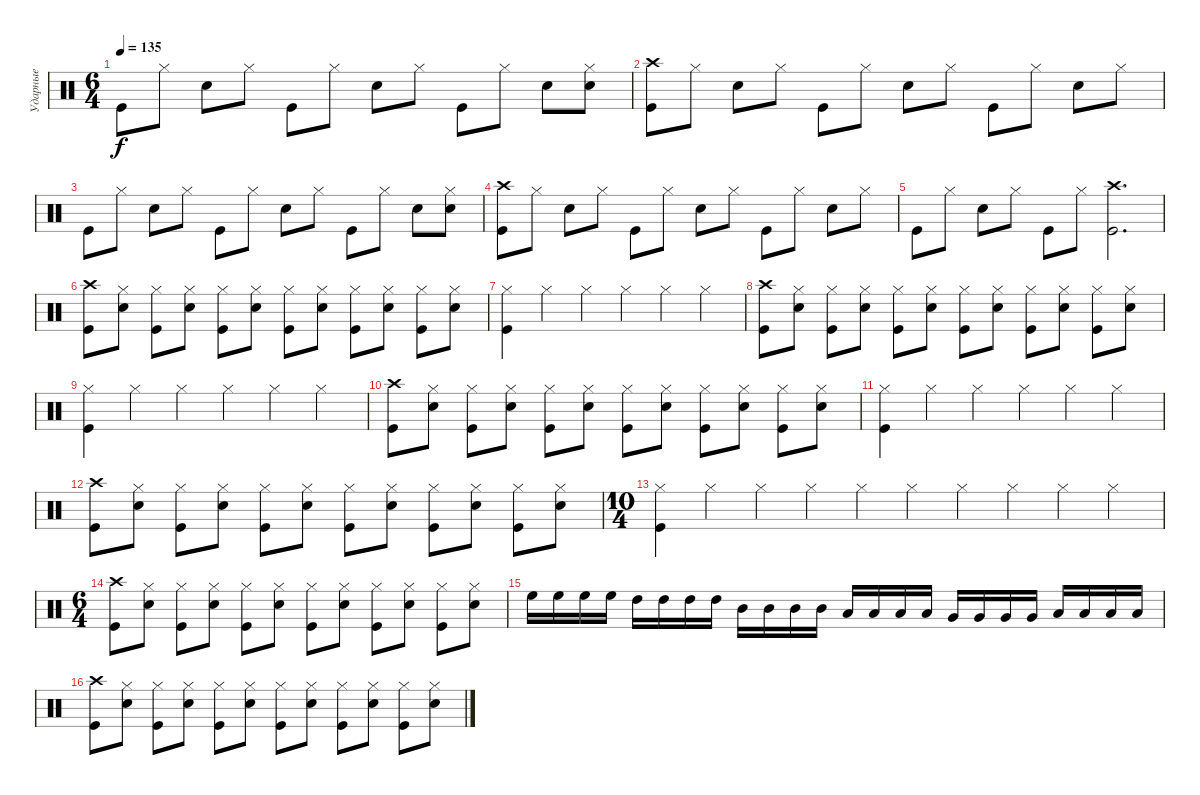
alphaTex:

\track ("Ударные" "Ударные") {instrument percussion}
\staff {score}
\articulation defaults
\ts (6 4)
\tempo 135
\clef neutral
\ks c "Kick (hit)".8{dy f} "Hi-Hat (closed)".8 "Electric Snare (hit)".8 "Hi-Hat (closed)".8 "Kick (hit)".8 "Hi-Hat (closed)".8 "Electric Snare (hit)".8 "Hi-Hat (closed)".8 "Kick (hit)".8 "Hi-Hat (closed)".8 "Electric Snare (hit)".8
("Hi-Hat (closed)" "Electric Snare (hit)").8 |
("Crash high (hit)" "Kick (hit)").8 "Hi-Hat (closed)".8 "Electric Snare (hit)".8 "Hi-Hat (closed)".8 "Kick (hit)".8 "Hi-Hat (closed)".8 "Electric Snare (hit)".8 "Hi-Hat (closed)".8 "Kick (hit)".8 "Hi-Hat (closed)".8 "Electric Snare (hit)".8 "Hi-Hat (closed)".8 |
"Kick (hit)".8 "Hi-Hat (closed)".8 "Electric Snare (hit)".8 "Hi-Hat (closed)".8 "Kick (hit)".8 "Hi-Hat (closed)".8 "Electric Snare (hit)".8 "Hi-Hat (closed)".8 "Kick (hit)".8 "Hi-Hat (closed)".8 "Electric Snare (hit)".8 ("Hi-Hat (closed)" "Electric Snare (hit)").8 |
("Crash high (hit)" "Kick (hit)").8 "Hi-Hat (closed)".8 "Electric Snare (hit)".8 "Hi-Hat (closed)".8 "Kick (hit)".8 "Hi-Hat (closed)".8 "Electric Snare (hit)".8 "Hi-Hat (closed)".8 "Kick (hit)".8 "Hi-Hat (closed)".8 "Electric Snare (hit)".8 "Hi-Hat (closed)".8 |
"Kick (hit)".8 "Hi-Hat (closed)".8 "Electric Snare (hit)".8 "Hi-Hat (closed)".8 "Kick (hit)".8 "Hi-Hat (closed)".8 ("Crash high (hit)" "Kick (hit)").2{d} |
("Crash high (hit)" "Kick (hit)").8 ("Hi-Hat (closed)" "Electric Snare (hit)").8 ("Hi-Hat (closed)" "Kick (hit)").8 ("Hi-Hat (closed)" "Electric Snare (hit)").8 ("Hi-Hat (closed)" "Kick (hit)").8 ("Hi-Hat (closed)" "Electric Snare (hit)").8 ("Hi-Hat (closed)" "Kick (hit)").8 ("Hi-Hat (closed)" "Electric Snare (hit)").8 ("Hi-Hat (closed)" "Kick (hit)").8 ("Hi-Hat (closed)" "Electric Snare (hit)").8 ("Hi-Hat (closed)" "Kick (hit)").8 ("Hi-Hat (closed)" "Electric Snare (hit)").8 |
("Hi-Hat (closed)" "Kick (hit)").4 "Hi-Hat (closed)".4 "Hi-Hat (closed)".4 "Hi-Hat (closed)".4 "Hi-Hat (closed)".4 "Hi-Hat (closed)".4 |
("Crash high (hit)" "Kick (hit)").8 ("Hi-Hat (closed)" "Electric Snare (hit)").8 ("Hi-Hat (closed)" "Kick (hit)").8 ("Hi-Hat (closed)" "Electric Snare (hit)").8 ("Hi-Hat (closed)" "Kick (hit)").8 ("Hi-Hat (closed)" "Electric Snare (hit)").8 ("Hi-Hat (closed)" "Kick (hit)").8 ("Hi-Hat (closed)" "Electric Snare (hit)").8 ("Hi-Hat (closed)" "Kick (hit)").8 ("Hi-Hat (closed)" "Electric Snare (hit)").8 ("Hi-Hat (closed)" "Kick (hit)").8 ("Hi-Hat (closed)" "Electric Snare (hit)").8 |
("Hi-Hat (closed)" "Kick (hit)").4 "Hi-Hat (closed)".4 "Hi-Hat (closed)".4 "Hi-Hat (closed)".4 "Hi-Hat (closed)".4 "Hi-Hat (closed)".4 |
("Crash high (hit)" "Kick (hit)").8 ("Hi-Hat (closed)" "Electric Snare (hit)").8 ("Hi-Hat (closed)" "Kick (hit)").8 ("Hi-Hat (closed)" "Electric Snare (hit)").8 ("Hi-Hat (closed)" "Kick (hit)").8 ("Hi-Hat (closed)" "Electric Snare (hit)").8 ("Hi-Hat (closed)" "Kick (hit)").8 ("Hi-Hat (closed)" "Electric Snare (hit)").8 ("Hi-Hat (closed)" "Kick (hit)").8 ("Hi-Hat (closed)" "Electric Snare (hit)").8 ("Hi-Hat (closed)" "Kick (hit)").8 ("Hi-Hat (closed)" "Electric Snare (hit)").8 |
("Hi-Hat (closed)" "Kick (hit)").4 "Hi-Hat (closed)".4 "Hi-Hat (closed)".4 "Hi-Hat (closed)".4 "Hi-Hat (closed)".4 "Hi-Hat (closed)".4 |
("Crash high (hit)" "Kick (hit)").8 ("Hi-Hat (closed)" "Electric Snare (hit)").8 ("Hi-Hat (closed)" "Kick (hit)").8 ("Hi-Hat (closed)" "Electric Snare (hit)").8 ("Hi-Hat (closed)" "Kick (hit)").8 ("Hi-Hat (closed)" "Electric Snare (hit)").8 ("Hi-Hat (closed)" "Kick (hit)").8 ("Hi-Hat (closed)" "Electric Snare (hit)").8 ("Hi-Hat (closed)" "Kick (hit)").8 ("Hi-Hat (closed)" "Electric Snare (hit)").8 ("Hi-Hat (closed)" "Kick (hit)").8 ("Hi-Hat (closed)" "Electric Snare (hit)").8 |
\ts (10 4)
("Hi-Hat (closed)" "Kick (hit)").4 "Hi-Hat (closed)".4 "Hi-Hat (closed)".4 "Hi-Hat (closed)".4 "Hi-Hat (closed)".4 "Hi-Hat (closed)".4 "Hi-Hat (closed)".4 "Hi-Hat (closed)".4 "Hi-Hat (closed)".4 "Hi-Hat (closed)".4 |
\ts (6 4)
("Crash high (hit)" "Kick (hit)").8 ("Hi-Hat (closed)" "Electric Snare (hit)").8 ("Hi-Hat (closed)" "Kick (hit)").8 ("Hi-Hat (closed)" "Electric Snare (hit)").8 ("Hi-Hat (closed)" "Kick (hit)").8 ("Hi-Hat (closed)" "Electric Snare (hit)").8 ("Hi-Hat (closed)" "Kick (hit)").8 ("Hi-Hat (closed)" "Electric Snare (hit)").8 ("Hi-Hat (closed)" "Kick (hit)").8 ("Hi-Hat (closed)" "Electric Snare (hit)").8 ("Hi-Hat (closed)" "Kick (hit)").8 ("Hi-Hat (closed)" "Electric Snare (hit)").8 |
"High Floor Tom (hit)".16 "High Floor Tom (hit)".16 "High Floor Tom (hit)".16 "High Floor Tom (hit)".16 "High Tom (hit)".16 "High Tom (hit)".16 "High Tom (hit)".16 "High Tom (hit)".16 "Mid Tom (hit)".16 "Mid Tom (hit)".16 "Mid Tom (hit)".16 "Mid Tom (hit)".16 "Low Tom (hit)".16 "Low Tom (hit)".16 "Low Tom (hit)".16 "Low Tom (hit)".16 "Very Low Tom (hit)".16 "Very Low Tom (hit)".16 "Very Low Tom (hit)".16 "Very Low Tom (hit)".16 "Low Floor Tom (hit)".16 "Low Floor Tom (hit)".16 "Low Floor Tom (hit)".16 "Low Floor Tom (hit)".16 |
("Crash high (hit)" "Kick (hit)").8 ("Hi-Hat (closed)" "Electric Snare (hit)").8 ("Hi-Hat (closed)" "Kick (hit)").8 ("Hi-Hat (closed)" "Electric Snare (hit)").8 ("Hi-Hat (closed)" "Kick (hit)").8 ("Hi-Hat (closed)" "Electric Snare (hit)").8 ("Hi-Hat (closed)" "Kick (hit)").8 ("Hi-Hat (closed)" "Electric Snare (hit)").8 ("Hi-Hat (closed)" "Kick (hit)").8 ("Hi-Hat (closed)" "Electric Snare (hit)").8 ("Hi-Hat (closed)" "Kick (hit)").8 ("Hi-Hat (closed)" "Electric Snare (hit)").8
